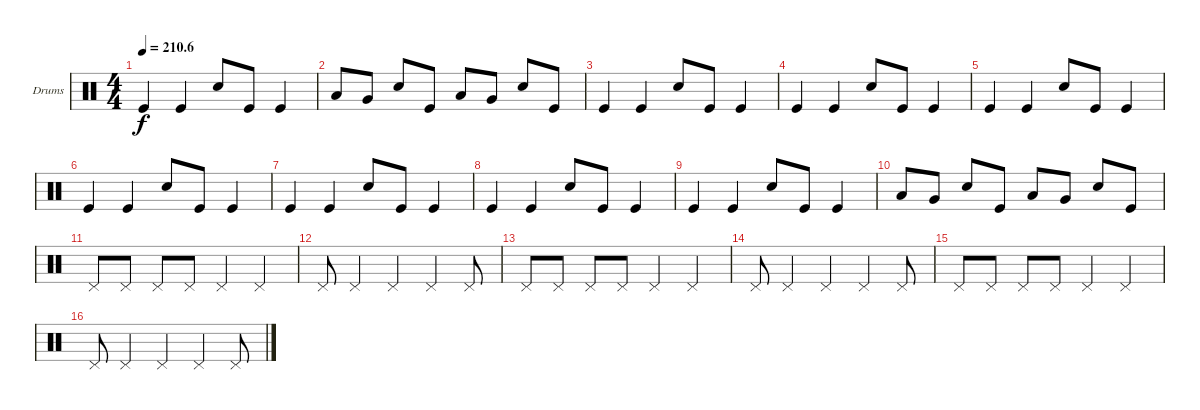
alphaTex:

\defaultSystemsLayout 4
\bracketExtendMode groupsimilarinstruments
\firstSystemTrackNameOrientation horizontal
\otherSystemsTrackNameOrientation horizontal
\track ("Drumkit" "Drums") {instrument percussion}
\staff {score}
\articulation defaults
\ts (4 4)
\tempo
210.6
\accidentals auto
\clef neutral
\ottava regular
\simile none
\ks c "Kick (hit)".4{dy f} "Kick (hit)".4 "Snare (hit) 2".8 "Kick (hit)".8 "Kick (hit)".4
|
"Low Tom (hit)".8 "Very Low Tom (hit)".8 "Snare (hit) 2".8 "Kick (hit)".8 "Low Tom (hit)".8 "Very Low Tom (hit)".8 "Snare (hit) 2".8 "Kick (hit)".8 |
"Kick (hit)".4 "Kick (hit)".4 "Snare (hit) 2".8 "Kick (hit)".8 "Kick (hit)".4 |
"Kick (hit)".4 "Kick (hit)".4 "Snare (hit) 2".8 "Kick (hit)".8 "Kick (hit)".4 |
"Kick (hit)".4 "Kick (hit)".4 "Snare (hit) 2".8 "Kick (hit)".8 "Kick (hit)".4 |
"Kick (hit)".4 "Kick (hit)".4 "Snare (hit) 2".8 "Kick (hit)".8 "Kick (hit)".4 |
"Kick (hit)".4 "Kick (hit)".4 "Snare (hit) 2".8 "Kick (hit)".8 "Kick (hit)".4 |
"Kick (hit)".4 "Kick (hit)".4 "Snare (hit) 2".8 "Kick (hit)".8 "Kick (hit)".4 |
"Kick (hit)".4 "Kick (hit)".4 "Snare (hit) 2".8 "Kick (hit)".8 "Kick (hit)".4 |
"Low Tom (hit)".8 "Very Low Tom (hit)".8 "Snare (hit) 2".8 "Kick (hit)".8 "Low Tom (hit)".8 "Very Low Tom (hit)".8 "Snare (hit) 2".8 "Kick (hit)".8 |
"Pedal Hi-Hat (hit)".8 "Pedal Hi-Hat (hit)".8 "Pedal Hi-Hat (hit)".8 "Pedal Hi-Hat (hit)".8 "Pedal Hi-Hat (hit)".4 "Pedal Hi-Hat (hit)".4 |
"Pedal Hi-Hat (hit)".8 "Pedal Hi-Hat (hit)".4 "Pedal Hi-Hat (hit)".4 "Pedal Hi-Hat (hit)".4 "Pedal Hi-Hat (hit)".8 |
"Pedal Hi-Hat (hit)".8 "Pedal Hi-Hat (hit)".8 "Pedal Hi-Hat (hit)".8 "Pedal Hi-Hat (hit)".8 "Pedal Hi-Hat (hit)".4 "Pedal Hi-Hat (hit)".4 |
"Pedal Hi-Hat (hit)".8 "Pedal Hi-Hat (hit)".4 "Pedal Hi-Hat (hit)".4 "Pedal Hi-Hat (hit)".4 "Pedal Hi-Hat (hit)".8 |
"Pedal Hi-Hat (hit)".8 "Pedal Hi-Hat (hit)".8 "Pedal Hi-Hat (hit)".8 "Pedal Hi-Hat (hit)".8 "Pedal Hi-Hat (hit)".4 "Pedal Hi-Hat (hit)".4 |
"Pedal Hi-Hat (hit)".8 "Pedal Hi-Hat (hit)".4 "Pedal Hi-Hat (hit)".4 "Pedal Hi-Hat (hit)".4 "Pedal Hi-Hat (hit)".8
